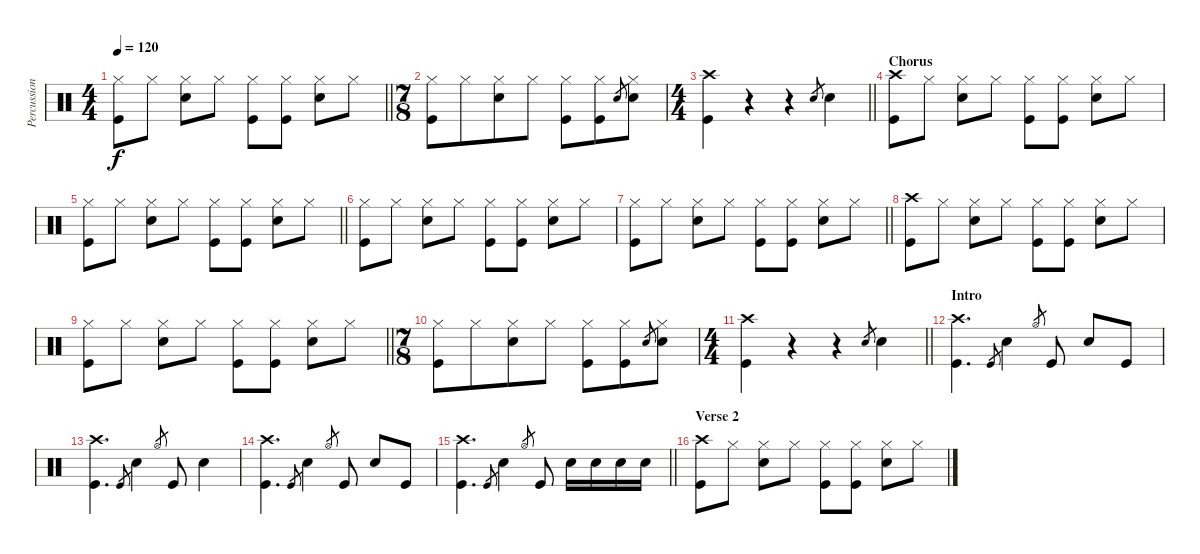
\track ("Percussion" "Percussion") {instrument percussion}
\staff {score}
\articulation defaults
\ts (4 4)
\tempo 120
\clef neutral
\barLineRight lightlight
\ks c
("Hi-Hat (closed)" "Kick (hit)").8{dy f} "Hi-Hat (closed)".8 ("Hi-Hat (closed)" "Snare (hit) 2").8 "Hi-Hat (closed)".8 ("Hi-Hat (closed)" "Kick (hit)").8 ("Hi-Hat (closed)" "Kick (hit)").8 ("Hi-Hat (closed)" "Snare (hit) 2").8 "Hi-Hat (closed)".8 |
\ts (7 8)
("Hi-Hat (closed)" "Kick (hit)").8 "Hi-Hat (closed)".8 ("Hi-Hat (closed)" "Snare (hit) 2").8 "Hi-Hat (closed)".8 ("Hi-Hat (closed)" "Kick (hit)").8 ("Hi-Hat (closed)" "Kick (hit)").8 "Snare (hit) 2".8{gr} ("Hi-Hat (closed)" "Snare (hit) 2").8 |
\ts (4 4)
\barLineRight lightlight
("Crash high (hit)" "Kick (hit)").4 r.4 r.4 "Snare (hit) 2".8{gr} "Snare (hit) 2".4 |
\section ("" "Chorus")
("Crash high (hit)" "Kick (hit)").8 "Hi-Hat (closed)".8 ("Hi-Hat (closed)" "Snare (hit) 2").8 "Hi-Hat (closed)".8 ("Hi-Hat (closed)" "Kick (hit)").8 ("Hi-Hat (closed)" "Kick (hit)").8 ("Hi-Hat (closed)" "Snare (hit) 2").8 "Hi-Hat (closed)".8 |
\barLineRight lightlight
("Hi-Hat (closed)" "Kick (hit)").8 "Hi-Hat (closed)".8 ("Hi-Hat (closed)" "Snare (hit) 2").8 "Hi-Hat (closed)".8 ("Hi-Hat (closed)" "Kick (hit)").8 ("Hi-Hat (closed)" "Kick (hit)").8 ("Hi-Hat (closed)" "Snare (hit) 2").8 "Hi-Hat (closed)".8 |
("Hi-Hat (closed)" "Kick (hit)").8 "Hi-Hat (closed)".8 ("Hi-Hat (closed)" "Snare (hit) 2").8 "Hi-Hat (closed)".8 ("Hi-Hat (closed)" "Kick (hit)").8 ("Hi-Hat (closed)" "Kick (hit)").8 ("Hi-Hat (closed)" "Snare (hit) 2").8 "Hi-Hat (closed)".8 |
\barLineRight lightlight
("Hi-Hat (closed)" "Kick (hit)").8 "Hi-Hat (closed)".8 ("Hi-Hat (closed)" "Snare (hit) 2").8 "Hi-Hat (closed)".8 ("Hi-Hat (closed)" "Kick (hit)").8 ("Hi-Hat (closed)" "Kick (hit)").8 ("Hi-Hat (closed)" "Snare (hit) 2").8 "Hi-Hat (closed)".8 |
("Crash high (hit)" "Kick (hit)").8 "Hi-Hat (closed)".8 ("Hi-Hat (closed)" "Snare (hit) 2").8 "Hi-Hat (closed)".8 ("Hi-Hat (closed)" "Kick (hit)").8 ("Hi-Hat (closed)" "Kick (hit)").8 ("Hi-Hat (closed)" "Snare (hit) 2").8 "Hi-Hat (closed)".8 |
\barLineRight lightlight
("Hi-Hat (closed)" "Kick (hit)").8 "Hi-Hat (closed)".8 ("Hi-Hat (closed)" "Snare (hit) 2").8 "Hi-Hat (closed)".8 ("Hi-Hat (closed)" "Kick (hit)").8 ("Hi-Hat (closed)" "Kick (hit)").8 ("Hi-Hat (closed)" "Snare (hit) 2").8 "Hi-Hat (closed)".8 |
\ts (7 8)
("Hi-Hat (closed)" "Kick (hit)").8 "Hi-Hat (closed)".8 ("Hi-Hat (closed)" "Snare (hit) 2").8 "Hi-Hat (closed)".8 ("Hi-Hat (closed)" "Kick (hit)").8 ("Hi-Hat (closed)" "Kick (hit)").8 "Snare (hit) 2".8{gr} ("Hi-Hat (closed)" "Snare (hit) 2").8 |
\ts (4 4)
\barLineRight lightlight
("Crash high (hit)" "Kick (hit)").4 r.4 r.4 "Snare (hit) 2".8{gr} "Snare (hit) 2".4 |
\section ("" "Intro")
("Crash high (hit)" "Kick (hit)").4{d} "Kick (hit)".8{gr} "Snare (hit) 2".4 "Hi-Hat (open)".8{gr} "Kick (hit)".8 "Snare (hit) 2".8 "Kick (hit)".8 |
("Crash high (hit)" "Kick (hit)").4{d} "Kick (hit)".8{gr} "Snare (hit) 2".4 "Hi-Hat (open)".8{gr} "Kick (hit)".8 "Snare (hit) 2".4 |
("Crash high (hit)" "Kick (hit)").4{d} "Kick (hit)".8{gr} "Snare (hit) 2".4 "Hi-Hat (open)".8{gr} "Kick (hit)".8 "Snare (hit) 2".8 "Kick (hit)".8 |
\barLineRight lightlight
("Crash high (hit)" "Kick (hit)").4{d} "Kick (hit)".8{gr} "Snare (hit) 2".4 "Hi-Hat (open)".8{gr} "Kick (hit)".8 "Snare (hit) 2".16 "Snare (hit) 2".16 "Snare (hit) 2".16 "Snare (hit) 2".16 |
\section ("" "Verse 2")
("Crash high (hit)" "Kick (hit)").8 "Hi-Hat (closed)".8 ("Hi-Hat (closed)" "Snare (hit) 2").8 "Hi-Hat (closed)".8 ("Hi-Hat (closed)" "Kick (hit)").8 ("Hi-Hat (closed)" "Kick (hit)").8 ("Hi-Hat (closed)" "Snare (hit) 2").8 "Hi-Hat (closed)".8
